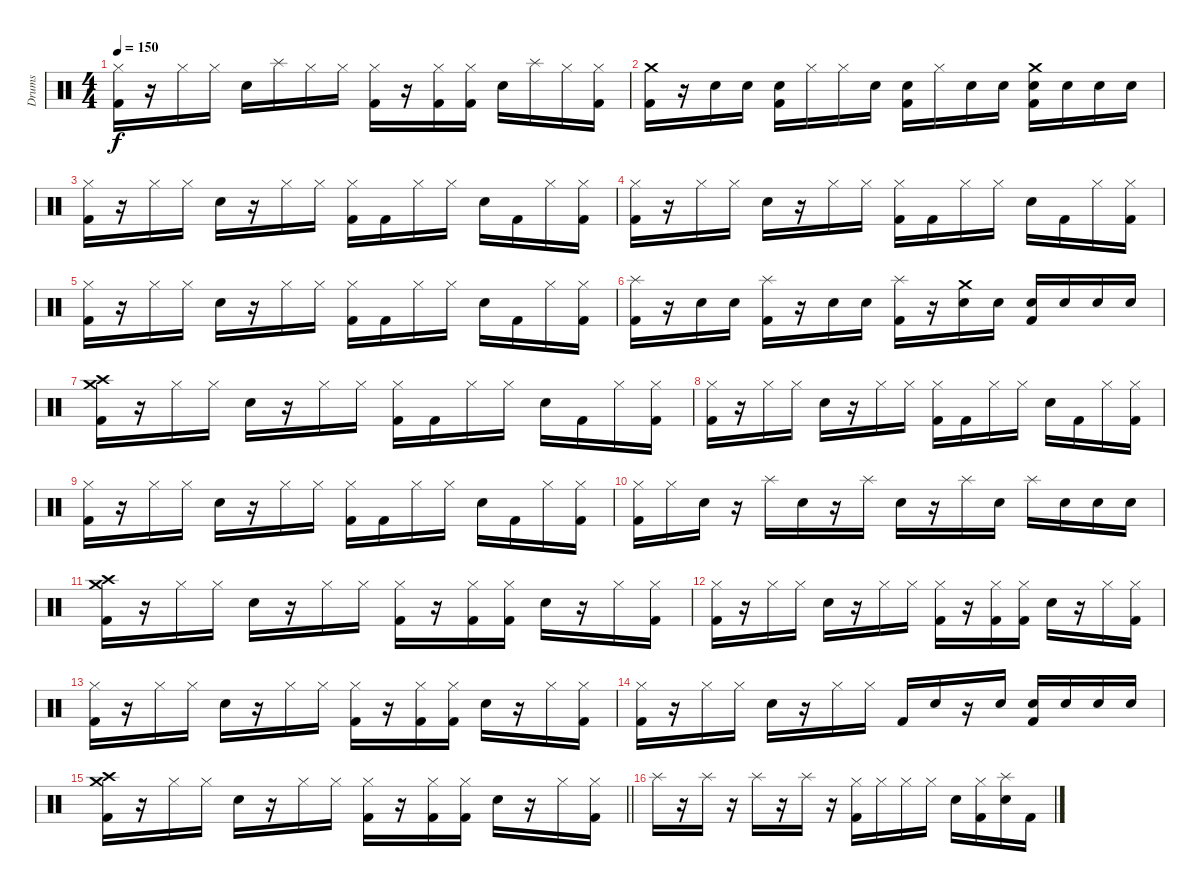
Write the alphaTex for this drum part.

\track ("Drums" "Drums") {instrument percussion}
\staff {score}
\articulation defaults
\ts (4 4)
\tempo 150
\clef neutral
\ks c
("Hi-Hat (closed)" "Kick (hit) 2").16{dy f} r.16 "Hi-Hat (closed)".16 "Hi-Hat (closed)".16 "Snare (hit) 2".16 "Splash (hit)".16 "Hi-Hat (closed)".16 "Hi-Hat (closed)".16 ("Hi-Hat (closed)" "Kick (hit) 2").16 r.16 ("Hi-Hat (closed)" "Kick (hit) 2").16 ("Hi-Hat (closed)" "Kick (hit) 2").16 "Snare (hit) 2".16 "Splash (hit)".16 "Hi-Hat (closed)".16 ("Hi-Hat (closed)" "Kick (hit) 2").16 |
("Crash medium (hit)" "Kick (hit) 2").16 r.16 "Snare (hit) 2".16 "Snare (hit) 2".16 ("Snare (hit) 2" "Kick (hit) 2").16 "Hi-Hat (closed)".16 "Hi-Hat (closed)".16 "Snare (hit) 2".16 ("Snare (hit) 2" "Kick (hit) 2").16 "Hi-Hat (closed)".16 "Snare (hit) 2".16 "Snare (hit) 2".16 ("Crash medium (hit)" "Snare (hit) 2" "Kick (hit) 2").16 "Snare (hit) 2".16 "Snare (hit) 2".16 "Snare (hit) 2".16 |
("Hi-Hat (closed)" "Kick (hit) 2").16 r.16 "Hi-Hat (closed)".16 "Hi-Hat (closed)".16 "Snare (hit) 2".16 r.16 "Hi-Hat (closed)".16 "Hi-Hat (closed)".16 ("Hi-Hat (closed)" "Kick (hit) 2").16 "Kick (hit) 2".16 "Hi-Hat (closed)".16 "Hi-Hat (closed)".16 "Snare (hit) 2".16 "Kick (hit) 2".16 "Hi-Hat (closed)".16 ("Hi-Hat (closed)" "Kick (hit) 2").16 |
("Hi-Hat (closed)" "Kick (hit) 2").16 r.16 "Hi-Hat (closed)".16 "Hi-Hat (closed)".16 "Snare (hit) 2".16 r.16 "Hi-Hat (closed)".16 "Hi-Hat (closed)".16 ("Hi-Hat (closed)" "Kick (hit) 2").16 "Kick (hit) 2".16 "Hi-Hat (closed)".16 "Hi-Hat (closed)".16 "Snare (hit) 2".16 "Kick (hit) 2".16 "Hi-Hat (closed)".16 ("Hi-Hat (closed)" "Kick (hit) 2").16 |
("Hi-Hat (closed)" "Kick (hit) 2").16 r.16 "Hi-Hat (closed)".16 "Hi-Hat (closed)".16 "Snare (hit) 2".16 r.16 "Hi-Hat (closed)".16 "Hi-Hat (closed)".16 ("Hi-Hat (closed)" "Kick (hit) 2").16 "Kick (hit) 2".16 "Hi-Hat (closed)".16 "Hi-Hat (closed)".16 "Snare (hit) 2".16 "Kick (hit) 2".16 "Hi-Hat (closed)".16 ("Hi-Hat (closed)" "Kick (hit) 2").16 |
("Splash (hit)" "Kick (hit) 2").16 r.16 "Snare (hit) 2".16 "Snare (hit) 2".16 ("Splash (hit)" "Kick (hit) 2").16 r.16 "Snare (hit) 2".16 "Snare (hit) 2".16 ("Splash (hit)" "Kick (hit) 2").16 r.16 ("Crash medium (hit)" "Snare (hit) 2").16 "Snare (hit) 2".16 ("Snare (hit) 2" "Kick (hit) 2").16 "Snare (hit) 2".16 "Snare (hit) 2".16 "Snare (hit) 2".16 |
("Crash medium (hit)" "Crash high (hit)" "Kick (hit) 2").16 r.16 "Hi-Hat (closed)".16 "Hi-Hat (closed)".16 "Snare (hit) 2".16 r.16 "Hi-Hat (closed)".16 "Hi-Hat (closed)".16 ("Hi-Hat (closed)" "Kick (hit) 2").16 "Kick (hit) 2".16 "Hi-Hat (closed)".16 "Hi-Hat (closed)".16 "Snare (hit) 2".16 "Kick (hit) 2".16 "Hi-Hat (closed)".16 ("Hi-Hat (closed)" "Kick (hit) 2").16 |
("Hi-Hat (closed)" "Kick (hit) 2").16 r.16 "Hi-Hat (closed)".16 "Hi-Hat (closed)".16 "Snare (hit) 2".16 r.16 "Hi-Hat (closed)".16 "Hi-Hat (closed)".16 ("Hi-Hat (closed)" "Kick (hit) 2").16 "Kick (hit) 2".16 "Hi-Hat (closed)".16 "Hi-Hat (closed)".16 "Snare (hit) 2".16 "Kick (hit) 2".16 "Hi-Hat (closed)".16 ("Hi-Hat (closed)" "Kick (hit) 2").16 |
("Hi-Hat (closed)" "Kick (hit) 2").16 r.16 "Hi-Hat (closed)".16 "Hi-Hat (closed)".16 "Snare (hit) 2".16 r.16 "Hi-Hat (closed)".16 "Hi-Hat (closed)".16 ("Hi-Hat (closed)" "Kick (hit) 2").16 "Kick (hit) 2".16 "Hi-Hat (closed)".16 "Hi-Hat (closed)".16 "Snare (hit) 2".16 "Kick (hit) 2".16 "Hi-Hat (closed)".16 ("Hi-Hat (closed)" "Kick (hit) 2").16 |
("Hi-Hat (closed)" "Kick (hit) 2").16 "Hi-Hat (closed)".16 "Snare (hit) 2".16 r.16 "Splash (hit)".16 "Snare (hit) 2".16 r.16 "Splash (hit)".16 "Snare (hit) 2".16 r.16 "Splash (hit)".16 "Snare (hit) 2".16 "Splash (hit)".16 "Snare (hit) 2".16 "Snare (hit) 2".16 "Snare (hit) 2".16 |
("Crash medium (hit)" "Crash high (hit)" "Kick (hit) 2").16 r.16 "Hi-Hat (closed)".16 "Hi-Hat (closed)".16 "Snare (hit) 2".16 r.16 "Hi-Hat (closed)".16 "Hi-Hat (closed)".16 ("Hi-Hat (closed)" "Kick (hit) 2").16 r.16 ("Hi-Hat (closed)" "Kick (hit) 2").16 ("Hi-Hat (closed)" "Kick (hit) 2").16 "Snare (hit) 2".16 r.16 "Hi-Hat (closed)".16 ("Hi-Hat (closed)" "Kick (hit) 2").16 |
("Hi-Hat (closed)" "Kick (hit) 2").16 r.16 "Hi-Hat (closed)".16 "Hi-Hat (closed)".16 "Snare (hit) 2".16 r.16 "Hi-Hat (closed)".16 "Hi-Hat (closed)".16 ("Hi-Hat (closed)" "Kick (hit) 2").16 r.16 ("Hi-Hat (closed)" "Kick (hit) 2").16 ("Hi-Hat (closed)" "Kick (hit) 2").16 "Snare (hit) 2".16 r.16 "Hi-Hat (closed)".16 ("Hi-Hat (closed)" "Kick (hit) 2").16 |
("Hi-Hat (closed)" "Kick (hit) 2").16 r.16 "Hi-Hat (closed)".16 "Hi-Hat (closed)".16 "Snare (hit) 2".16 r.16 "Hi-Hat (closed)".16 "Hi-Hat (closed)".16 ("Hi-Hat (closed)" "Kick (hit) 2").16 r.16 ("Hi-Hat (closed)" "Kick (hit) 2").16 ("Hi-Hat (closed)" "Kick (hit) 2").16 "Snare (hit) 2".16 r.16 "Hi-Hat (closed)".16 ("Hi-Hat (closed)" "Kick (hit) 2").16 |
("Hi-Hat (closed)" "Kick (hit) 2").16{volume 0} r.16 "Hi-Hat (closed)".16 "Hi-Hat (closed)".16 "Snare (hit) 2".16 r.16 "Hi-Hat (closed)".16 "Hi-Hat (closed)".16 "Kick (hit) 2".16 "Snare (hit) 2".16 r.16 "Snare (hit) 2".16 ("Snare (hit) 2" "Kick (hit) 2").16 "Snare (hit) 2".16 "Snare (hit) 2".16 "Snare (hit) 2".16 |
\barLineRight lightlight
("Crash medium (hit)" "Crash high (hit)" "Kick (hit) 2").16 r.16 "Hi-Hat (closed)".16 "Hi-Hat (closed)".16 "Snare (hit) 2".16 r.16 "Hi-Hat (closed)".16 "Hi-Hat (closed)".16 ("Hi-Hat (closed)" "Kick (hit) 2").16 r.16 ("Hi-Hat (closed)" "Kick (hit) 2").16 ("Hi-Hat (closed)" "Kick (hit) 2").16 "Snare (hit) 2".16 r.16 "Hi-Hat (closed)".16 ("Hi-Hat (closed)" "Kick (hit) 2").16 |
\section ("" "")
"Splash (hit)".16{volume 13} r.16 "Splash (hit)".16 r.16 "Splash (hit)".16 r.16 "Splash (hit)".16 r.16 ("Hi-Hat (closed)" "Kick (hit) 2").16 "Hi-Hat (closed)".16 "Hi-Hat (closed)".16 "Hi-Hat (closed)".16 "Snare (hit) 2".16 ("Hi-Hat (closed)" "Kick (hit) 2").16 ("Splash (hit)" "Snare (hit) 2").16 "Kick (hit) 2".16
